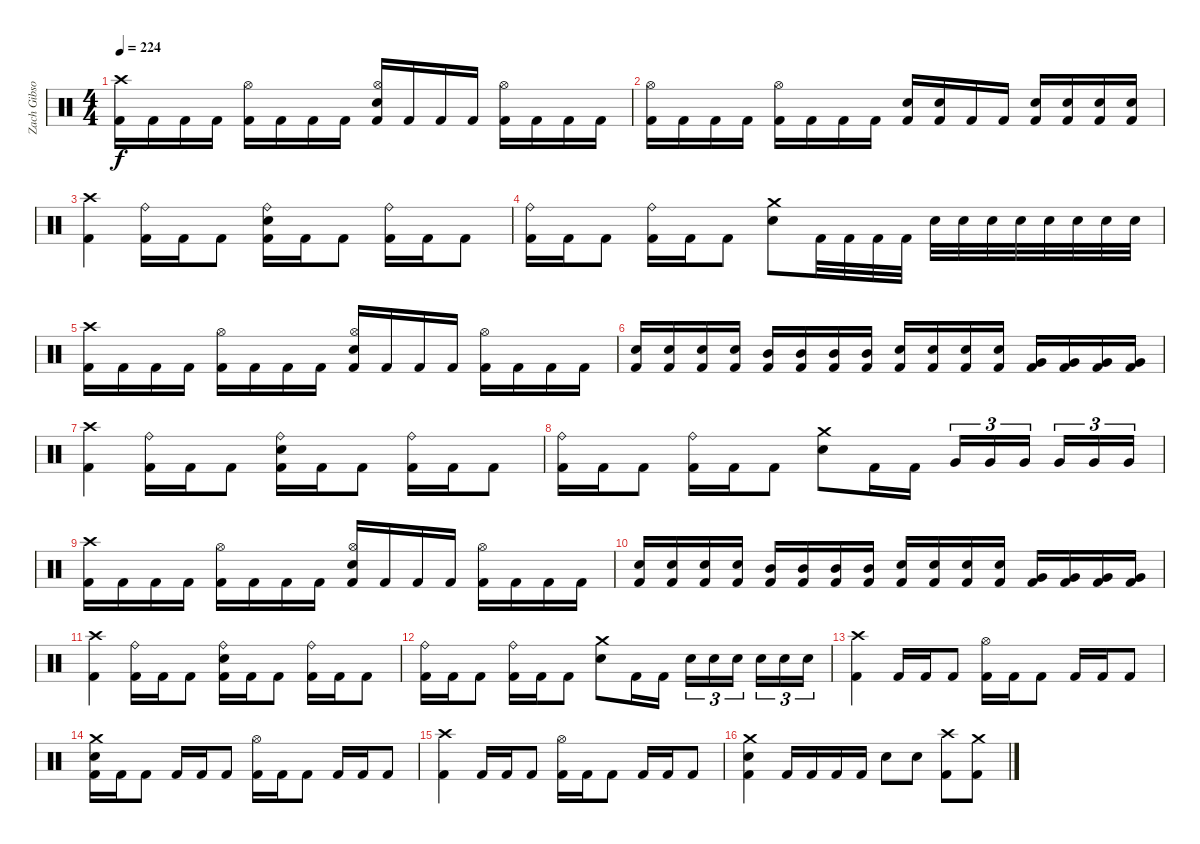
\track ("Zach Gibson (Drums)" "Zach Gibso") {instrument percussion}
\staff {score}
\articulation defaults
\ts (4 4)
\tempo 224
\clef neutral
\ks c
("Crash high (hit)" "Kick (hit) 2").16{dy f} "Kick (hit) 2".16 "Kick (hit) 2".16 "Kick (hit) 2".16 ("Hi-Hat (open)" "Kick (hit) 2").16 "Kick (hit) 2".16 "Kick (hit) 2".16 "Kick (hit) 2".16 ("Hi-Hat (open)" "Snare (hit) 2" "Kick (hit) 2").16 "Kick (hit) 2".16 "Kick (hit) 2".16 "Kick (hit) 2".16 ("Hi-Hat (open)" "Kick (hit) 2").16 "Kick (hit) 2".16 "Kick (hit) 2".16 "Kick (hit) 2".16 |
("Hi-Hat (open)" "Kick (hit) 2").16 "Kick (hit) 2".16 "Kick (hit) 2".16 "Kick (hit) 2".16 ("Hi-Hat (open)" "Kick (hit) 2").16 "Kick (hit) 2".16 "Kick (hit) 2".16 "Kick (hit) 2".16 ("Snare (hit) 2" "Kick (hit) 2").16 ("Snare (hit) 2" "Kick (hit) 2").16 "Kick (hit) 2".16 "Kick (hit) 2".16 ("Snare (hit) 2" "Kick (hit) 2").16 ("Snare (hit) 2" "Kick (hit) 2").16 ("Snare (hit) 2" "Kick (hit) 2").16 ("Snare (hit) 2" "Kick (hit) 2").16 |
("Crash high (hit)" "Kick (hit) 2").4 ("Ride (bell)" "Kick (hit) 2").16 "Kick (hit) 2".16 "Kick (hit) 2".8 ("Snare (hit) 2" "Ride (bell)" "Kick (hit) 2").16 "Kick (hit) 2".16 "Kick (hit) 2".8 ("Ride (bell)" "Kick (hit) 2").16 "Kick (hit) 2".16 "Kick (hit) 2".8 |
("Ride (bell)" "Kick (hit) 2").16 "Kick (hit) 2".16 "Kick (hit) 2".8 ("Ride (bell)" "Kick (hit) 2").16 "Kick (hit) 2".16 "Kick (hit) 2".8 ("Crash medium (hit)" "Snare (hit) 2").8 "Kick (hit) 2".32 "Kick (hit) 2".32 "Kick (hit) 2".32 "Kick (hit) 2".32 "Snare (hit) 2".32 "Snare (hit) 2".32 "Snare (hit) 2".32 "Snare (hit) 2".32 "Snare (hit) 2".32 "Snare (hit) 2".32 "Snare (hit) 2".32 "Snare (hit) 2".32 |
("Crash high (hit)" "Kick (hit) 2").16 "Kick (hit) 2".16 "Kick (hit) 2".16 "Kick (hit) 2".16 ("Hi-Hat (open)" "Kick (hit) 2").16 "Kick (hit) 2".16 "Kick (hit) 2".16 "Kick (hit) 2".16 ("Hi-Hat (open)" "Snare (hit) 2" "Kick (hit) 2").16 "Kick (hit) 2".16 "Kick (hit) 2".16 "Kick (hit) 2".16 ("Hi-Hat (open)" "Kick (hit) 2").16 "Kick (hit) 2".16 "Kick (hit) 2".16 "Kick (hit) 2".16 |
("Snare (hit) 2" "Kick (hit) 2").16 ("Snare (hit) 2" "Kick (hit) 2").16 ("Snare (hit) 2" "Kick (hit) 2").16 ("Snare (hit) 2" "Kick (hit) 2").16 ("Mid Tom (hit)" "Kick (hit) 2").16 ("Mid Tom (hit)" "Kick (hit) 2").16 ("Mid Tom (hit)" "Kick (hit) 2").16 ("Mid Tom (hit)" "Kick (hit) 2").16 ("Snare (hit) 2" "Kick (hit) 2").16 ("Snare (hit) 2" "Kick (hit) 2").16 ("Snare (hit) 2" "Kick (hit) 2").16 ("Snare (hit) 2" "Kick (hit) 2").16 ("Very Low Tom (hit)" "Kick (hit) 2").16 ("Very Low Tom (hit)" "Kick (hit) 2").16 ("Very Low Tom (hit)" "Kick (hit) 2").16 ("Very Low Tom (hit)" "Kick (hit) 2").16 |
("Crash high (hit)" "Kick (hit) 2").4 ("Ride (bell)" "Kick (hit) 2").16 "Kick (hit) 2".16 "Kick (hit) 2".8 ("Snare (hit) 2" "Ride (bell)" "Kick (hit) 2").16 "Kick (hit) 2".16 "Kick (hit) 2".8 ("Ride (bell)" "Kick (hit) 2").16 "Kick (hit) 2".16 "Kick (hit) 2".8 |
("Ride (bell)" "Kick (hit) 2").16 "Kick (hit) 2".16 "Kick (hit) 2".8 ("Ride (bell)" "Kick (hit) 2").16 "Kick (hit) 2".16 "Kick (hit) 2".8 ("Crash medium (hit)" "Snare (hit) 2").8 "Kick (hit) 2".16 "Kick (hit) 2".16 "Very Low Tom (hit)".16{tu (3 2)} "Very Low Tom (hit)".16{tu (3 2)} "Very Low Tom (hit)".16{tu (3 2)} "Very Low Tom (hit)".16{tu (3 2)} "Very Low Tom (hit)".16{tu (3 2)} "Very Low Tom (hit)".16{tu (3 2)} |
("Crash high (hit)" "Kick (hit) 2").16 "Kick (hit) 2".16 "Kick (hit) 2".16 "Kick (hit) 2".16 ("Hi-Hat (open)" "Kick (hit) 2").16 "Kick (hit) 2".16 "Kick (hit) 2".16 "Kick (hit) 2".16 ("Hi-Hat (open)" "Snare (hit) 2" "Kick (hit) 2").16 "Kick (hit) 2".16 "Kick (hit) 2".16 "Kick (hit) 2".16 ("Hi-Hat (open)" "Kick (hit) 2").16 "Kick (hit) 2".16 "Kick (hit) 2".16 "Kick (hit) 2".16 |
("Snare (hit) 2" "Kick (hit) 2").16 ("Snare (hit) 2" "Kick (hit) 2").16 ("Snare (hit) 2" "Kick (hit) 2").16 ("Snare (hit) 2" "Kick (hit) 2").16 ("Mid Tom (hit)" "Kick (hit) 2").16 ("Mid Tom (hit)" "Kick (hit) 2").16 ("Mid Tom (hit)" "Kick (hit) 2").16 ("Mid Tom (hit)" "Kick (hit) 2").16 ("Snare (hit) 2" "Kick (hit) 2").16 ("Snare (hit) 2" "Kick (hit) 2").16 ("Snare (hit) 2" "Kick (hit) 2").16 ("Snare (hit) 2" "Kick (hit) 2").16 ("Very Low Tom (hit)" "Kick (hit) 2").16 ("Very Low Tom (hit)" "Kick (hit) 2").16 ("Very Low Tom (hit)" "Kick (hit) 2").16 ("Very Low Tom (hit)" "Kick (hit) 2").16 |
("Crash high (hit)" "Kick (hit) 2").4 ("Ride (bell)" "Kick (hit) 2").16 "Kick (hit) 2".16 "Kick (hit) 2".8 ("Snare (hit) 2" "Ride (bell)" "Kick (hit) 2").16 "Kick (hit) 2".16 "Kick (hit) 2".8 ("Ride (bell)" "Kick (hit) 2").16 "Kick (hit) 2".16 "Kick (hit) 2".8 |
("Ride (bell)" "Kick (hit) 2").16 "Kick (hit) 2".16 "Kick (hit) 2".8 ("Ride (bell)" "Kick (hit) 2").16 "Kick (hit) 2".16 "Kick (hit) 2".8 ("Crash medium (hit)" "Snare (hit) 2").8 "Kick (hit) 2".16 "Kick (hit) 2".16 "Snare (hit) 2".16{tu (3 2)} "Snare (hit) 2".16{tu (3 2)} "Snare (hit) 2".16{tu (3 2)} "Snare (hit) 2".16{tu (3 2)} "Snare (hit) 2".16{tu (3 2)} "Snare (hit) 2".16{tu (3 2)} |
("Crash high (hit)" "Kick (hit) 2").4 "Kick (hit) 2".16 "Kick (hit) 2".16 "Kick (hit) 2".8 ("Hi-Hat (open)" "Kick (hit) 2").16 "Kick (hit) 2".16 "Kick (hit) 2".8 "Kick (hit) 2".16 "Kick (hit) 2".16 "Kick (hit) 2".8 |
("Snare (hit) 2" "Crash medium (hit)" "Kick (hit) 2").16 "Kick (hit) 2".16 "Kick (hit) 2".8 "Kick (hit) 2".16 "Kick (hit) 2".16 "Kick (hit) 2".8 ("Hi-Hat (open)" "Kick (hit) 2").16 "Kick (hit) 2".16 "Kick (hit) 2".8 "Kick (hit) 2".16 "Kick (hit) 2".16 "Kick (hit) 2".8 |
("Crash high (hit)" "Kick (hit) 2").4 "Kick (hit) 2".16 "Kick (hit) 2".16 "Kick (hit) 2".8 ("Hi-Hat (open)" "Kick (hit) 2").16 "Kick (hit) 2".16 "Kick (hit) 2".8 "Kick (hit) 2".16 "Kick (hit) 2".16 "Kick (hit) 2".8 |
("Crash medium (hit)" "Snare (hit) 2" "Kick (hit) 2").4 "Kick (hit) 2".16 "Kick (hit) 2".16 "Kick (hit) 2".16 "Kick (hit) 2".16 "Snare (hit) 2".8 "Snare (hit) 2".8 ("Crash high (hit)" "Kick (hit) 2").8 ("Crash medium (hit)" "Kick (hit) 2").8
